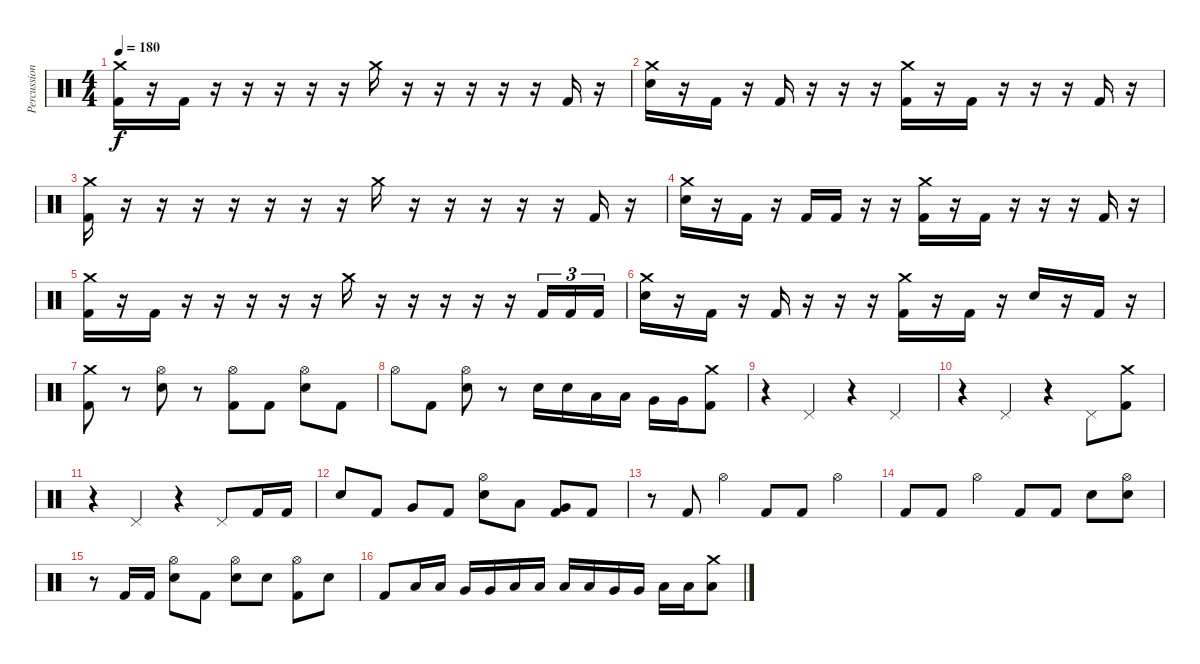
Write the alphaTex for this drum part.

\track ("Percussion" "Percussion") {instrument percussion}
\staff {score}
\articulation defaults
\ts (4 4)
\tempo 180
\clef neutral
\ks c
("Crash medium (hit)" "Kick (hit) 2").16{dy f} r.16 "Kick (hit) 2".16 r.16 r.16 r.16 r.16 r.16 "Crash medium (hit)".16 r.16 r.16 r.16 r.16 r.16 "Kick (hit) 2".16 r.16 |
("Crash medium (hit)" "Electric Snare (hit)").16 r.16 "Kick (hit) 2".16 r.16 "Kick (hit) 2".16 r.16 r.16 r.16 ("Crash medium (hit)" "Kick (hit) 2").16 r.16 "Kick (hit) 2".16 r.16 r.16 r.16 "Kick (hit) 2".16 r.16 |
("Crash medium (hit)" "Kick (hit) 2").16 r.16 r.16 r.16 r.16 r.16 r.16 r.16 "Crash medium (hit)".16 r.16 r.16 r.16 r.16 r.16 "Kick (hit) 2".16 r.16 |
("Crash medium (hit)" "Electric Snare (hit)").16 r.16 "Kick (hit) 2".16 r.16 "Kick (hit) 2".16 "Kick (hit) 2".16 r.16 r.16 ("Crash medium (hit)" "Kick (hit) 2").16 r.16 "Kick (hit) 2".16 r.16 r.16 r.16 "Kick (hit) 2".16 r.16 |
("Crash medium (hit)" "Kick (hit) 2").16 r.16 "Kick (hit) 2".16 r.16 r.16 r.16 r.16 r.16 "Crash medium (hit)".16 r.16 r.16 r.16 r.16 r.16 "Kick (hit) 2".16{tu (3 2)} "Kick (hit) 2".16{tu (3 2)} "Kick (hit) 2".16{tu (3 2)} |
("Crash medium (hit)" "Electric Snare (hit)").16 r.16 "Kick (hit) 2".16 r.16 "Kick (hit) 2".16 r.16 r.16 r.16 ("Crash medium (hit)" "Kick (hit) 2").16 r.16 "Kick (hit) 2".16 r.16 "Electric Snare (hit)".16 r.16 "Kick (hit) 2".16 r.16 |
("Crash medium (hit)" "Kick (hit) 2").8 r.8 ("Hi-Hat (open)" "Electric Snare (hit)").8 r.8 ("Hi-Hat (open)" "Kick (hit) 2").8 "Kick (hit) 2".8 ("Hi-Hat (open)" "Electric Snare (hit)").8 "Kick (hit) 2".8 |
"Hi-Hat (open)".8 "Kick (hit) 2".8 ("Hi-Hat (open)" "Electric Snare (hit)").8 r.8 "Electric Snare (hit)".16 "Electric Snare (hit)".16 "Low Tom (hit)".16 "Low Tom (hit)".16 "Very Low Tom (hit)".16 "Very Low Tom (hit)".16 ("Crash medium (hit)" "Kick (hit) 2").8 |
r.4 "Pedal Hi-Hat (hit)".4 r.4 "Pedal Hi-Hat (hit)".4 |
r.4 "Pedal Hi-Hat (hit)".4 r.4 "Pedal Hi-Hat (hit)".8 ("Crash medium (hit)" "Kick (hit) 2").8 |
r.4 "Pedal Hi-Hat (hit)".4 r.4 "Pedal Hi-Hat (hit)".8 "Kick (hit) 2".16 "Kick (hit) 2".16 |
"Electric Snare (hit)".8 "Kick (hit) 2".8 "Very Low Tom (hit)".8 "Kick (hit) 2".8 ("Hi-Hat (open)" "Electric Snare (hit)").8 "Low Tom (hit)".8 ("Very Low Tom (hit)" "Kick (hit) 2").8 "Kick (hit) 2".8 |
r.8 "Kick (hit) 2".8 "Hi-Hat (open)".4 "Kick (hit) 2".8 "Kick (hit) 2".8 "Hi-Hat (open)".4 |
"Kick (hit) 2".8 "Kick (hit) 2".8 "Hi-Hat (open)".4 "Kick (hit) 2".8 "Kick (hit) 2".8 "Electric Snare (hit)".8 ("Hi-Hat (open)" "Electric Snare (hit)").8 |
r.8 "Kick (hit) 2".16 "Kick (hit) 2".16 ("Hi-Hat (open)" "Electric Snare (hit)").8 "Kick (hit) 2".8 ("Hi-Hat (open)" "Electric Snare (hit)").8 "Electric Snare (hit)".8 ("Hi-Hat (open)" "Kick (hit) 2").8 "Electric Snare (hit)".8 |
"Kick (hit) 2".8 "Low Tom (hit)".16 "Low Tom (hit)".16 "Very Low Tom (hit)".16 "Very Low Tom (hit)".16 "Low Floor Tom (hit)".16 "Low Floor Tom (hit)".16 "Low Tom (hit)".16 "Low Tom (hit)".16 "Very Low Tom (hit)".16 "Very Low Tom (hit)".16 "Low Floor Tom (hit)".16 "Low Floor Tom (hit)".16 ("Crash medium (hit)" "Low Floor Tom (hit)").8
